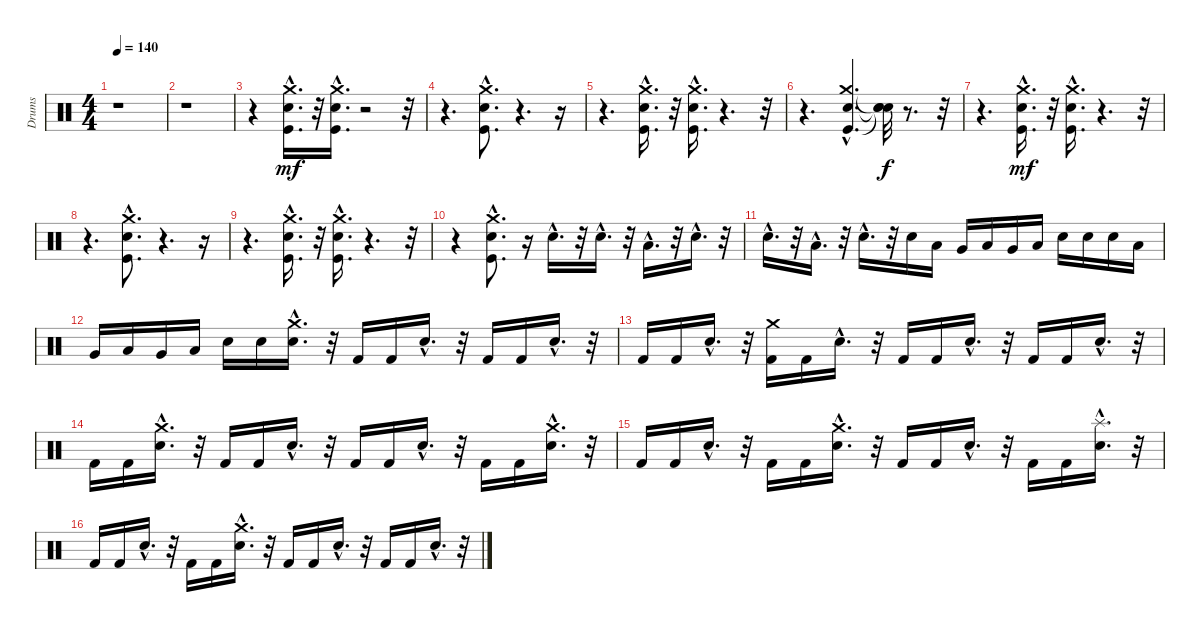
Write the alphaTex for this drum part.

\track ("Drums" "Drums") {instrument percussion}
\staff {score}
\articulation defaults
\ts (4 4)
\tempo 140
\clef neutral
\ks c
r.1{dy mf} |
r.1 |
r.4 ("Snare (hit) 2"{hac} "Kick (hit)"{hac} "Crash medium (hit)"{hac}).16{d} r.32 ("Snare (hit) 2"{hac} "Crash medium (hit)"{hac} "Kick (hit)"{hac}).16{d} r.2 r.32 |
r.4{d} ("Snare (hit) 2"{hac} "Crash medium (hit)"{hac} "Kick (hit)"{hac}).8{d} r.4{d} r.16 |
r.4{d} ("Kick (hit)"{hac} "Crash medium (hit)"{hac} "Snare (hit) 2"{hac}).16{d} r.32 ("Crash medium (hit)"{hac} "Kick (hit)"{hac} "Snare (hit) 2"{hac}).16{d} r.4{d} r.32 |
r.4{d} ("Kick (hit)"{hac} "Crash medium (hit)"{hac} "Electric Snare (hit)"{hac}).4{d} ("Snare (hit)"{t} "Snare (hit)"{t} "Snare (hit)"{t}).32{dy f} r.8{d} r.32 |
r.4{d} ("Snare (hit) 2"{hac} "Crash medium (hit)"{hac} "Kick (hit)"{hac}).16{d dy mf} r.32 ("Kick (hit)"{hac} "Crash medium (hit)"{hac} "Snare (hit) 2"{hac}).16{d} r.4{d} r.32 |
r.4{d} ("Snare (hit) 2"{hac} "Kick (hit)"{hac} "Crash medium (hit)"{hac}).8{d} r.4{d} r.16 |
r.4{d} ("Snare (hit) 2"{hac} "Kick (hit)"{hac} "Crash medium (hit)"{hac}).16{d} r.32 ("Kick (hit)"{hac} "Crash medium (hit)"{hac} "Snare (hit) 2"{hac}).16{d} r.4{d} r.32 |
r.4 ("Kick (hit)"{hac} "Crash medium (hit)"{hac} "Snare (hit) 2"{hac}).8{d} r.16 "Snare (hit) 2"{hac}.16{d} r.32 "Electric Snare (hit)"{hac}.16{d} r.32 "Low Floor Tom (hit)"{hac}.16{d} r.32 "Snare (hit) 2"{hac}.16{d} r.32 |
"Electric Snare (hit)"{hac}.16{d} r.32 "Low Floor Tom (hit)"{hac}.16{d} r.32 "Snare (hit) 2"{hac}.16{d} r.32 "Electric Snare (hit)".16 "Low Floor Tom (hit)".16 "Very Low Tom (hit)".16 "Low Tom (hit)".16 "Very Low Tom (hit)".16 "Low Floor Tom (hit)".16 "Electric Snare (hit)".16 "Snare (hit) 2".16 "Electric Snare (hit)".16 "Low Floor Tom (hit)".16 |
"Very Low Tom (hit)".16 "Low Tom (hit)".16 "Very Low Tom (hit)".16 "Low Floor Tom (hit)".16 "Electric Snare (hit)".16 "Snare (hit) 2".16 ("Crash medium (hit)"{hac} "Electric Snare (hit)"{hac}).16{d} r.32 "Kick (hit) 2".16 "Kick (hit) 2".16 "Electric Snare (hit)"{hac}.16{d} r.32 "Kick (hit) 2".16 "Kick (hit) 2".16 "Electric Snare (hit)"{hac}.16{d} r.32 |
"Kick (hit) 2".16 "Kick (hit) 2".16 "Electric Snare (hit)"{hac}.16{d} r.32 ("Crash medium (hit)" "Kick (hit) 2").16 "Kick (hit) 2".16 "Electric Snare (hit)"{hac}.16{d} r.32 "Kick (hit) 2".16 "Kick (hit) 2".16 "Electric Snare (hit)"{hac}.16{d} r.32 "Kick (hit) 2".16 "Kick (hit) 2".16 "Electric Snare (hit)"{hac}.16{d} r.32 |
"Kick (hit) 2".16 "Kick (hit) 2".16 ("Crash medium (hit)"{hac} "Electric Snare (hit)"{hac}).16{d} r.32 "Kick (hit) 2".16 "Kick (hit) 2".16 "Electric Snare (hit)"{hac}.16{d} r.32 "Kick (hit) 2".16 "Kick (hit) 2".16 "Electric Snare (hit)"{hac}.16{d} r.32 "Kick (hit) 2".16 "Kick (hit) 2".16 ("Crash medium (hit)"{hac} "Electric Snare (hit)"{hac}).16{d} r.32 |
"Kick (hit) 2".16 "Kick (hit) 2".16 "Electric Snare (hit)"{hac}.16{d} r.32 "Kick (hit) 2".16 "Kick (hit) 2".16 ("Crash medium (hit)"{hac} "Snare (hit) 2"{hac}).16{d} r.32 "Kick (hit) 2".16 "Kick (hit) 2".16 "Snare (hit) 2"{hac}.16{d} r.32 "Kick (hit) 2".16 "Kick (hit) 2".16 ("Splash (hit)"{hac} "Snare (hit) 2"{hac}).16{d} r.32 |
"Kick (hit) 2".16 "Kick (hit) 2".16 "Snare (hit) 2"{hac}.16{d} r.32 "Kick (hit) 2".16 "Kick (hit) 2".16 ("Crash medium (hit)"{hac} "Electric Snare (hit)"{hac}).16{d} r.32 "Kick (hit) 2".16 "Kick (hit) 2".16 "Electric Snare (hit)"{hac}.16{d} r.32 "Kick (hit) 2".16 "Kick (hit) 2".16 "Electric Snare (hit)"{hac}.16{d} r.32
